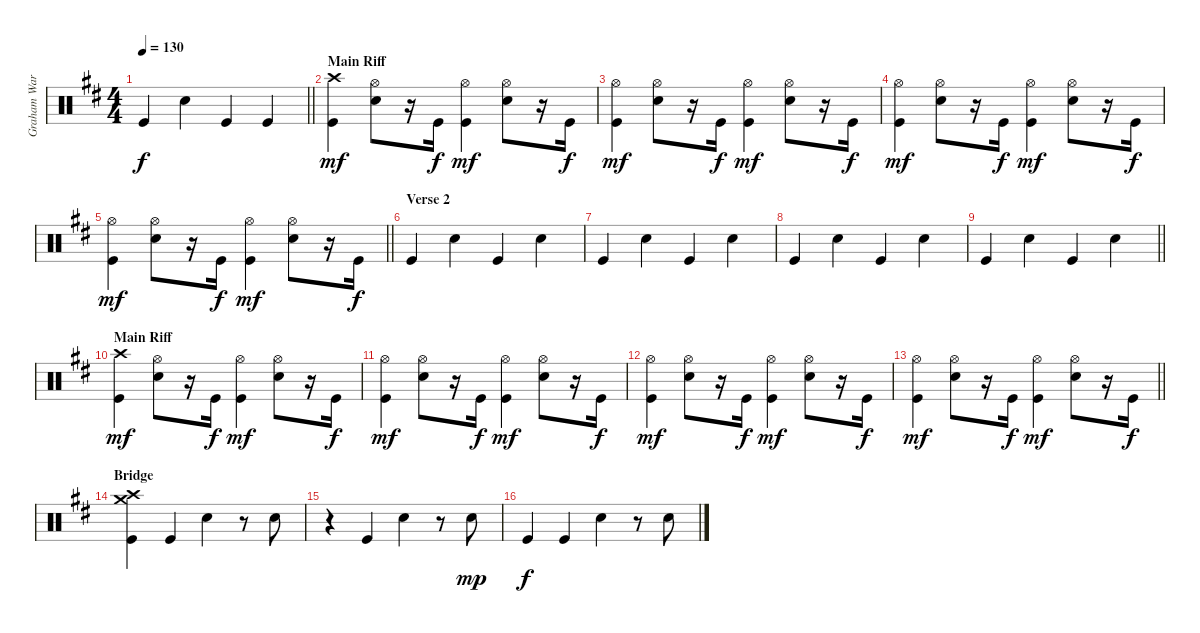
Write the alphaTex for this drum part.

\track ("Graham Ward (DRUMS)" "Graham War") {instrument percussion}
\staff {score}
\articulation defaults
\ts (4 4)
\tempo 130
\clef neutral
\barLineRight lightlight
\ks d "Kick (hit)".4{dy f} "Snare (hit) 2".4 "Kick (hit)".4 "Kick (hit)".4
|
\section ("" "Main Riff")
("Crash high (hit)" "Kick (hit)").4{dy mf} ("Snare (hit) 2" "Hi-Hat (open)").8 r.16 "Kick (hit)".16{dy f} ("Hi-Hat (open)" "Kick (hit)").4{dy mf} ("Snare (hit) 2" "Hi-Hat (open)").8 r.16 "Kick (hit)".16{dy f} |
("Hi-Hat (open)" "Kick (hit)").4{dy mf} ("Snare (hit) 2" "Hi-Hat (open)").8 r.16 "Kick (hit)".16{dy f} ("Hi-Hat (open)" "Kick (hit)").4{dy mf} ("Snare (hit) 2" "Hi-Hat (open)").8 r.16 "Kick (hit)".16{dy f} |
("Hi-Hat (open)" "Kick (hit)").4{dy mf} ("Snare (hit) 2" "Hi-Hat (open)").8 r.16 "Kick (hit)".16{dy f} ("Hi-Hat (open)" "Kick (hit)").4{dy mf} ("Snare (hit) 2" "Hi-Hat (open)").8 r.16 "Kick (hit)".16{dy f} |
\barLineRight lightlight
("Hi-Hat (open)" "Kick (hit)").4{dy mf} ("Snare (hit) 2" "Hi-Hat (open)").8 r.16 "Kick (hit)".16{dy f} ("Hi-Hat (open)" "Kick (hit)").4{dy mf} ("Snare (hit) 2" "Hi-Hat (open)").8 r.16 "Kick (hit)".16{dy f} |
\section ("" "Verse 2")
"Kick (hit)".4 "Snare (hit) 2".4 "Kick (hit)".4 "Snare (hit) 2".4 |
"Kick (hit)".4 "Snare (hit) 2".4 "Kick (hit)".4 "Snare (hit) 2".4 |
"Kick (hit)".4 "Snare (hit) 2".4 "Kick (hit)".4 "Snare (hit) 2".4 |
\barLineRight lightlight "Kick (hit)".4 "Snare (hit) 2".4 "Kick (hit)".4 "Snare (hit) 2".4
|
\section ("" "Main Riff")
("Crash high (hit)" "Kick (hit)").4{dy mf} ("Snare (hit) 2" "Hi-Hat (open)").8 r.16 "Kick (hit)".16{dy f} ("Hi-Hat (open)" "Kick (hit)").4{dy mf} ("Snare (hit) 2" "Hi-Hat (open)").8 r.16 "Kick (hit)".16{dy f} |
("Hi-Hat (open)" "Kick (hit)").4{dy mf} ("Snare (hit) 2" "Hi-Hat (open)").8 r.16 "Kick (hit)".16{dy f} ("Hi-Hat (open)" "Kick (hit)").4{dy mf} ("Snare (hit) 2" "Hi-Hat (open)").8 r.16 "Kick (hit)".16{dy f} |
("Hi-Hat (open)" "Kick (hit)").4{dy mf} ("Snare (hit) 2" "Hi-Hat (open)").8 r.16 "Kick (hit)".16{dy f} ("Hi-Hat (open)" "Kick (hit)").4{dy mf} ("Snare (hit) 2" "Hi-Hat (open)").8 r.16 "Kick (hit)".16{dy f} |
\barLineRight lightlight
("Hi-Hat (open)" "Kick (hit)").4{dy mf} ("Snare (hit) 2" "Hi-Hat (open)").8 r.16 "Kick (hit)".16{dy f} ("Hi-Hat (open)" "Kick (hit)").4{dy mf} ("Snare (hit) 2" "Hi-Hat (open)").8 r.16 "Kick (hit)".16{dy f} |
\section ("" "Bridge")
("Crash medium (hit)" "Crash high (hit)" "Kick (hit)").4 "Kick (hit)".4 "Electric Snare (hit)".4 r.8 "Electric Snare (hit)".8 |
r.4 "Kick (hit)".4 "Electric Snare (hit)".4 r.8 "Electric Snare (hit)".8{dy mp} |
"Kick (hit)".4{dy f} "Kick (hit)".4 "Electric Snare (hit)".4 r.8 "Electric Snare (hit)".8
